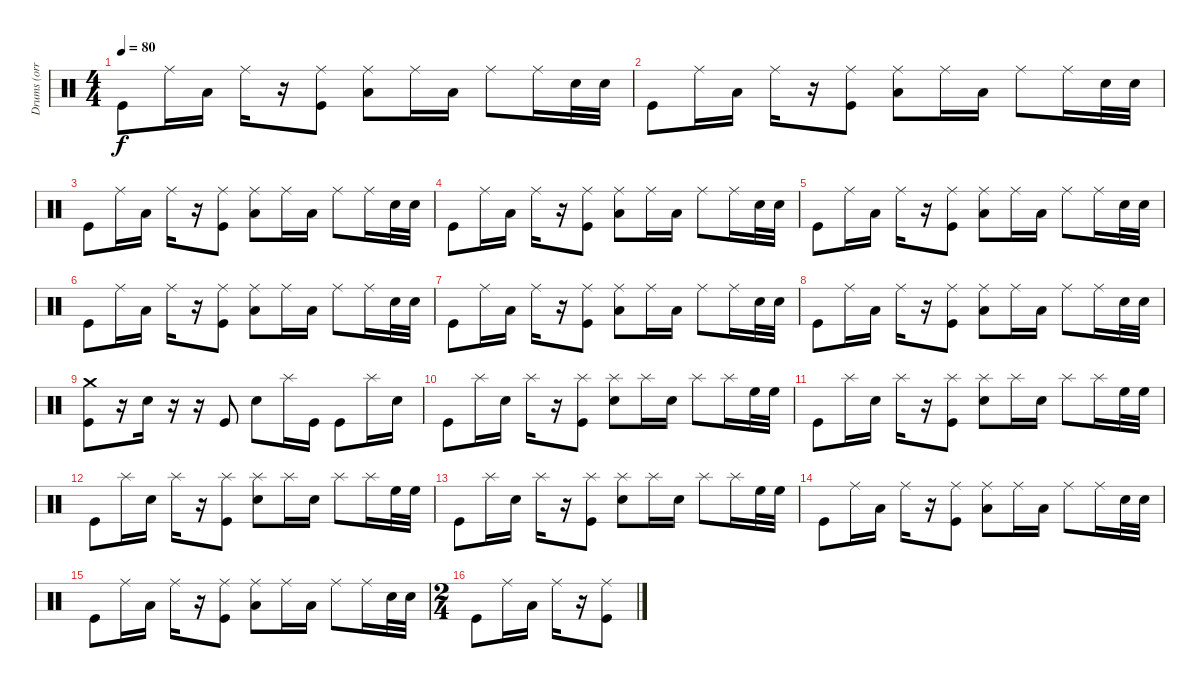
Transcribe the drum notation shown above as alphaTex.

\track ("Drums (orri páll dırason)" "Drums (orr") {instrument percussion}
\staff {score}
\articulation defaults
\ts (4 4)
\tempo 80
\clef neutral
\ks c "Kick (hit)".8{dy f} "Ride (middle)".16 "Low Tom (hit)".16 "Ride (middle)".16
r.16 ("Ride (middle)" "Kick (hit)").8 ("Ride (middle)" "Low Tom (hit)").8 "Ride (middle)".16 "Low Tom (hit)".16 "Ride (middle)".8 "Ride (middle)".16 "Electric Snare (hit)".32 "Electric Snare (hit)".32 |
"Kick (hit)".8 "Ride (middle)".16 "Low Tom (hit)".16 "Ride (middle)".16 r.16 ("Ride (middle)" "Kick (hit)").8 ("Ride (middle)" "Low Tom (hit)").8 "Ride (middle)".16 "Low Tom (hit)".16 "Ride (middle)".8 "Ride (middle)".16 "Electric Snare (hit)".32 "Electric Snare (hit)".32 |
"Kick (hit)".8 "Ride (middle)".16 "Low Tom (hit)".16 "Ride (middle)".16 r.16 ("Ride (middle)" "Kick (hit)").8 ("Ride (middle)" "Low Tom (hit)").8 "Ride (middle)".16 "Low Tom (hit)".16 "Ride (middle)".8 "Ride (middle)".16 "Electric Snare (hit)".32 "Electric Snare (hit)".32 |
"Kick (hit)".8 "Ride (middle)".16 "Low Tom (hit)".16 "Ride (middle)".16 r.16 ("Ride (middle)" "Kick (hit)").8 ("Ride (middle)" "Low Tom (hit)").8 "Ride (middle)".16 "Low Tom (hit)".16 "Ride (middle)".8 "Ride (middle)".16 "Electric Snare (hit)".32 "Electric Snare (hit)".32 |
"Kick (hit)".8 "Ride (middle)".16 "Low Tom (hit)".16 "Ride (middle)".16 r.16 ("Ride (middle)" "Kick (hit)").8 ("Ride (middle)" "Low Tom (hit)").8 "Ride (middle)".16 "Low Tom (hit)".16 "Ride (middle)".8 "Ride (middle)".16 "Electric Snare (hit)".32 "Electric Snare (hit)".32 |
"Kick (hit)".8 "Ride (middle)".16 "Low Tom (hit)".16 "Ride (middle)".16 r.16 ("Ride (middle)" "Kick (hit)").8 ("Ride (middle)" "Low Tom (hit)").8 "Ride (middle)".16 "Low Tom (hit)".16 "Ride (middle)".8 "Ride (middle)".16 "Electric Snare (hit)".32 "Electric Snare (hit)".32 |
"Kick (hit)".8 "Ride (middle)".16 "Low Tom (hit)".16 "Ride (middle)".16 r.16 ("Ride (middle)" "Kick (hit)").8 ("Ride (middle)" "Low Tom (hit)").8 "Ride (middle)".16 "Low Tom (hit)".16 "Ride (middle)".8 "Ride (middle)".16 "Electric Snare (hit)".32 "Electric Snare (hit)".32 |
"Kick (hit)".8 "Ride (middle)".16 "Low Tom (hit)".16 "Ride (middle)".16 r.16 ("Ride (middle)" "Kick (hit)").8 ("Ride (middle)" "Low Tom (hit)").8 "Ride (middle)".16 "Low Tom (hit)".16 "Ride (middle)".8 "Ride (middle)".16 "Electric Snare (hit)".32 "Electric Snare (hit)".32 |
("Crash medium (hit)" "Kick (hit)").8 r.16 "Electric Snare (hit)".16 r.16 r.16 "Kick (hit)".8 "Electric Snare (hit)".8 "Splash (hit)".16 "Kick (hit)".16 "Kick (hit)".8 "Splash (hit)".16 "Electric Snare (hit)".16 |
"Kick (hit)".8 "Splash (hit)".16 "Electric Snare (hit)".16 "Splash (hit)".16 r.16 ("Splash (hit)" "Kick (hit)").8 ("Splash (hit)" "Electric Snare (hit)").8 "Splash (hit)".16 "Electric Snare (hit)".16 "Splash (hit)".8 "Splash (hit)".16 "High Floor Tom (hit)".32 "High Floor Tom (hit)".32 |
"Kick (hit)".8 "Splash (hit)".16 "Electric Snare (hit)".16 "Splash (hit)".16 r.16 ("Splash (hit)" "Kick (hit)").8 ("Splash (hit)" "Electric Snare (hit)").8 "Splash (hit)".16 "Electric Snare (hit)".16 "Splash (hit)".8 "Splash (hit)".16 "High Floor Tom (hit)".32 "High Floor Tom (hit)".32 |
"Kick (hit)".8 "Splash (hit)".16 "Electric Snare (hit)".16 "Splash (hit)".16 r.16 ("Splash (hit)" "Kick (hit)").8 ("Splash (hit)" "Electric Snare (hit)").8 "Splash (hit)".16 "Electric Snare (hit)".16 "Splash (hit)".8 "Splash (hit)".16 "High Floor Tom (hit)".32 "High Floor Tom (hit)".32 |
"Kick (hit)".8 "Splash (hit)".16 "Electric Snare (hit)".16 "Splash (hit)".16 r.16 ("Splash (hit)" "Kick (hit)").8 ("Splash (hit)" "Electric Snare (hit)").8 "Splash (hit)".16 "Electric Snare (hit)".16 "Splash (hit)".8 "Splash (hit)".16 "High Floor Tom (hit)".32 "High Floor Tom (hit)".32 |
"Kick (hit)".8 "Ride (middle)".16 "Low Tom (hit)".16 "Ride (middle)".16 r.16 ("Ride (middle)" "Kick (hit)").8 ("Ride (middle)" "Low Tom (hit)").8 "Ride (middle)".16 "Low Tom (hit)".16 "Ride (middle)".8 "Ride (middle)".16 "Electric Snare (hit)".32 "Electric Snare (hit)".32 |
"Kick (hit)".8 "Ride (middle)".16 "Low Tom (hit)".16 "Ride (middle)".16 r.16 ("Ride (middle)" "Kick (hit)").8 ("Ride (middle)" "Low Tom (hit)").8 "Ride (middle)".16 "Low Tom (hit)".16 "Ride (middle)".8 "Ride (middle)".16 "Electric Snare (hit)".32 "Electric Snare (hit)".32 |
\ts (2 4)
"Kick (hit)".8 "Ride (middle)".16 "Low Tom (hit)".16 "Ride (middle)".16 r.16 ("Ride (middle)" "Kick (hit)").8
